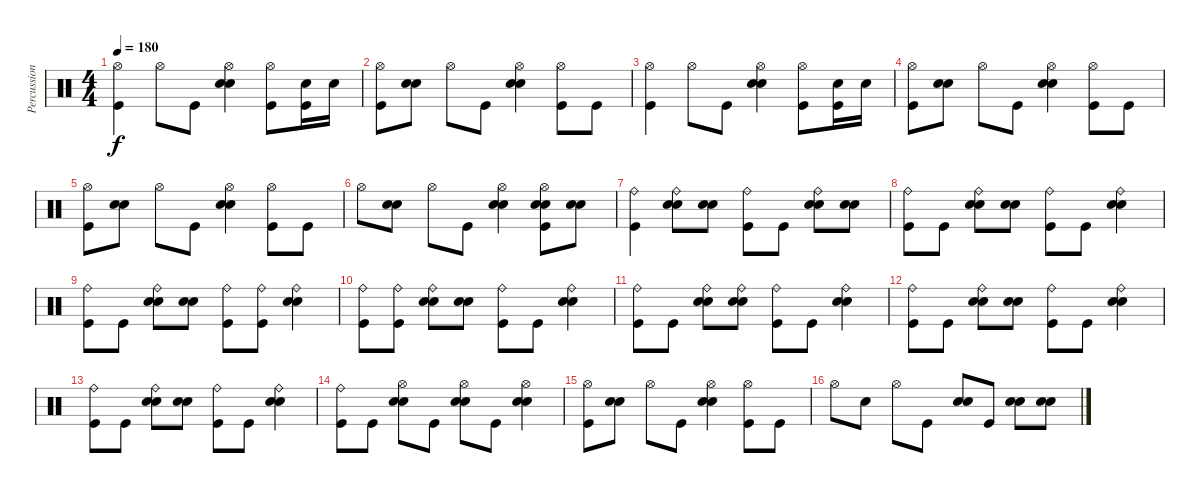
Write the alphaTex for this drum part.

\track ("Percussion" "Percussion") {instrument percussion}
\staff {score}
\articulation defaults
\ts (4 4)
\tempo 180
\clef neutral
\ks c
("Hi-Hat (open)" "Kick (hit)").4{dy f} "Hi-Hat (open)".8 "Kick (hit)".8 ("Hi-Hat (open)" "Snare (hit) 2" "Electric Snare (hit)").4 ("Hi-Hat (open)" "Kick (hit)").8 ("Snare (hit) 2" "Kick (hit)").16 "Snare (hit) 2".16 |
("Hi-Hat (open)" "Kick (hit)").8 ("Snare (hit) 2" "Electric Snare (hit)").8 "Hi-Hat (open)".8 "Kick (hit)".8 ("Hi-Hat (open)" "Snare (hit) 2" "Electric Snare (hit)").4 ("Hi-Hat (open)" "Kick (hit)").8 "Kick (hit)".8 |
("Hi-Hat (open)" "Kick (hit)").4 "Hi-Hat (open)".8 "Kick (hit)".8 ("Hi-Hat (open)" "Snare (hit) 2" "Electric Snare (hit)").4 ("Hi-Hat (open)" "Kick (hit)").8 ("Snare (hit) 2" "Kick (hit)").16 "Snare (hit) 2".16 |
("Hi-Hat (open)" "Kick (hit)").8 ("Snare (hit) 2" "Electric Snare (hit)").8 "Hi-Hat (open)".8 "Kick (hit)".8 ("Hi-Hat (open)" "Snare (hit) 2" "Electric Snare (hit)").4 ("Hi-Hat (open)" "Kick (hit)").8 "Kick (hit)".8 |
("Hi-Hat (open)" "Kick (hit)").8 ("Snare (hit) 2" "Electric Snare (hit)").8 "Hi-Hat (open)".8 "Kick (hit)".8 ("Hi-Hat (open)" "Snare (hit) 2" "Electric Snare (hit)").4 ("Hi-Hat (open)" "Kick (hit)").8 "Kick (hit)".8 |
"Hi-Hat (open)".8 ("Snare (hit) 2" "Electric Snare (hit)").8 "Hi-Hat (open)".8 "Kick (hit)".8 ("Hi-Hat (open)" "Snare (hit) 2" "Electric Snare (hit)").4 ("Hi-Hat (open)" "Snare (hit) 2" "Electric Snare (hit)" "Kick (hit)").8 ("Snare (hit) 2" "Electric Snare (hit)").8 |
("Ride (bell)" "Kick (hit)").4 ("Ride (bell)" "Snare (hit) 2" "Electric Snare (hit)").8 ("Snare (hit) 2" "Electric Snare (hit)").8 ("Ride (bell)" "Kick (hit)").8 "Kick (hit)".8 ("Ride (bell)" "Snare (hit) 2" "Electric Snare (hit)").8 ("Snare (hit) 2" "Electric Snare (hit)").8 |
("Ride (bell)" "Kick (hit)").8 "Kick (hit)".8 ("Ride (bell)" "Snare (hit) 2" "Electric Snare (hit)").8 ("Snare (hit) 2" "Electric Snare (hit)").8 ("Ride (bell)" "Kick (hit)").8 "Kick (hit)".8 ("Ride (bell)" "Snare (hit) 2" "Electric Snare (hit)").4 |
("Ride (bell)" "Kick (hit)").8 "Kick (hit)".8 ("Ride (bell)" "Snare (hit) 2" "Electric Snare (hit)").8 ("Snare (hit) 2" "Electric Snare (hit)").8 ("Ride (bell)" "Kick (hit)").8 ("Ride (bell)" "Kick (hit)").8 ("Ride (bell)" "Snare (hit) 2" "Electric Snare (hit)").4 |
("Ride (bell)" "Kick (hit)").8 ("Ride (bell)" "Kick (hit)").8 ("Ride (bell)" "Snare (hit) 2" "Electric Snare (hit)").8 ("Snare (hit) 2" "Electric Snare (hit)").8 ("Ride (bell)" "Kick (hit)").8 "Kick (hit)".8 ("Ride (bell)" "Snare (hit) 2" "Electric Snare (hit)").4 |
("Ride (bell)" "Kick (hit)").8 "Kick (hit)".8 ("Ride (bell)" "Snare (hit) 2" "Electric Snare (hit)").8 ("Ride (bell)" "Snare (hit) 2" "Electric Snare (hit)").8 ("Ride (bell)" "Kick (hit)").8 "Kick (hit)".8 ("Ride (bell)" "Snare (hit) 2" "Electric Snare (hit)").4 |
("Ride (bell)" "Kick (hit)").8 "Kick (hit)".8 ("Ride (bell)" "Snare (hit) 2" "Electric Snare (hit)").8 ("Snare (hit) 2" "Electric Snare (hit)").8 ("Ride (bell)" "Kick (hit)").8 "Kick (hit)".8 ("Ride (bell)" "Snare (hit) 2" "Electric Snare (hit)").4 |
("Ride (bell)" "Kick (hit)").8 "Kick (hit)".8 ("Ride (bell)" "Snare (hit) 2" "Electric Snare (hit)").8 ("Snare (hit) 2" "Electric Snare (hit)").8 ("Ride (bell)" "Kick (hit)").8 "Kick (hit)".8 ("Ride (bell)" "Snare (hit) 2" "Electric Snare (hit)").4 |
("Ride (bell)" "Kick (hit)").8 "Kick (hit)".8 ("Hi-Hat (open)" "Snare (hit) 2" "Electric Snare (hit)").8 "Kick (hit)".8 ("Hi-Hat (open)" "Snare (hit) 2" "Electric Snare (hit)").8 "Kick (hit)".8 ("Hi-Hat (open)" "Snare (hit) 2" "Electric Snare (hit)").4 |
("Hi-Hat (open)" "Kick (hit)").8 ("Snare (hit) 2" "Electric Snare (hit)").8 "Hi-Hat (open)".8 "Kick (hit)".8 ("Hi-Hat (open)" "Snare (hit) 2" "Electric Snare (hit)").4 ("Hi-Hat (open)" "Kick (hit)").8 "Kick (hit)".8 |
"Hi-Hat (open)".8 "Snare (hit) 2".8 "Hi-Hat (open)".8 "Kick (hit)".8 ("Snare (hit) 2" "Electric Snare (hit)").8 "Kick (hit)".8 ("Snare (hit) 2" "Electric Snare (hit)").8 ("Snare (hit) 2" "Electric Snare (hit)").8
